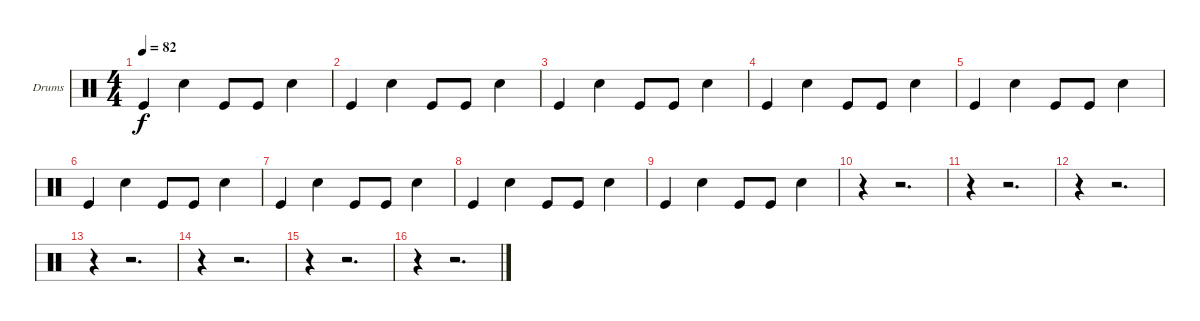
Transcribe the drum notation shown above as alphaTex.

\bracketExtendMode groupsimilarinstruments
\firstSystemTrackNameOrientation horizontal
\otherSystemsTrackNameOrientation horizontal
\track ("Drumkit" "Drums") {instrument percussion}
\staff {score}
\articulation defaults
\ts (4 4)
\tempo 82
\clef neutral
\ks c "Kick (hit)".4{dy f} "Snare (hit) 2".4 "Kick (hit)".8 "Kick (hit)".8 "Snare (hit) 2".4
|
"Kick (hit)".4 "Snare (hit) 2".4 "Kick (hit)".8 "Kick (hit)".8 "Snare (hit) 2".4 |
"Kick (hit)".4 "Snare (hit) 2".4 "Kick (hit)".8 "Kick (hit)".8 "Snare (hit) 2".4 |
"Kick (hit)".4 "Snare (hit) 2".4 "Kick (hit)".8 "Kick (hit)".8 "Snare (hit) 2".4 |
"Kick (hit)".4 "Snare (hit) 2".4 "Kick (hit)".8 "Kick (hit)".8 "Snare (hit) 2".4 |
"Kick (hit)".4 "Snare (hit) 2".4 "Kick (hit)".8 "Kick (hit)".8 "Snare (hit) 2".4 |
"Kick (hit)".4 "Snare (hit) 2".4 "Kick (hit)".8 "Kick (hit)".8 "Snare (hit) 2".4 |
"Kick (hit)".4 "Snare (hit) 2".4 "Kick (hit)".8 "Kick (hit)".8 "Snare (hit) 2".4 |
"Kick (hit)".4 "Snare (hit) 2".4 "Kick (hit)".8 "Kick (hit)".8 "Snare (hit) 2".4 |
r.4 r.2{d} |
r.4 r.2{d} |
r.4 r.2{d} |
r.4 r.2{d} |
r.4 r.2{d} |
r.4 r.2{d} |
r.4 r.2{d}
